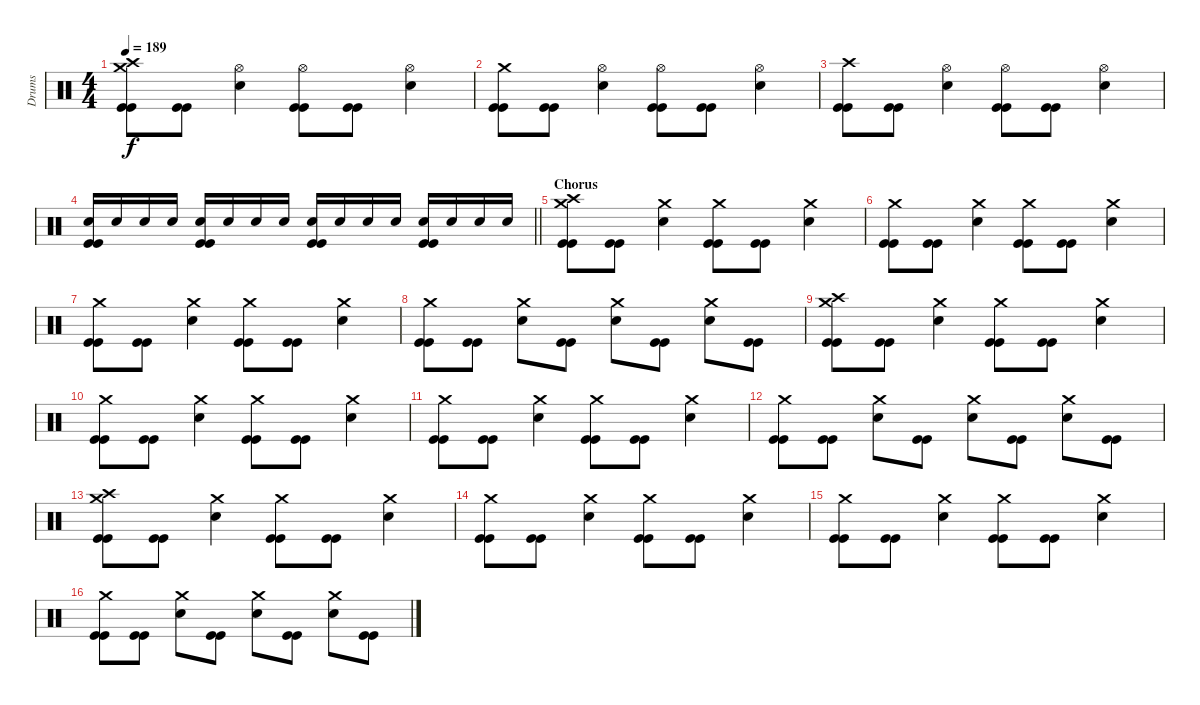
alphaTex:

\track ("Drums" "Drums") {instrument percussion}
\staff {score}
\articulation defaults
\ts (4 4)
\tempo 189
\clef neutral
\ks c
("Crash high (hit)" "Crash medium (hit)" "Kick (hit)" "Kick (hit)").8{dy f} ("Kick (hit)" "Kick (hit)").8 ("Hi-Hat (open)" "Electric Snare (hit)").4 ("Hi-Hat (open)" "Kick (hit)" "Kick (hit)").8 ("Kick (hit)" "Kick (hit)").8 ("Hi-Hat (open)" "Electric Snare (hit)").4 |
("Crash medium (hit)" "Kick (hit)" "Kick (hit)").8 ("Kick (hit)" "Kick (hit)").8 ("Hi-Hat (open)" "Electric Snare (hit)").4 ("Hi-Hat (open)" "Kick (hit)" "Kick (hit)").8 ("Kick (hit)" "Kick (hit)").8 ("Hi-Hat (open)" "Electric Snare (hit)").4 |
("Crash high (hit)" "Kick (hit)" "Kick (hit)").8 ("Kick (hit)" "Kick (hit)").8 ("Hi-Hat (open)" "Electric Snare (hit)").4 ("Hi-Hat (open)" "Kick (hit)" "Kick (hit)").8 ("Kick (hit)" "Kick (hit)").8 ("Hi-Hat (open)" "Electric Snare (hit)").4 |
\barLineRight lightlight
("Electric Snare (hit)" "Kick (hit)" "Kick (hit)").16 "Electric Snare (hit)".16 "Electric Snare (hit)".16 "Electric Snare (hit)".16 ("Electric Snare (hit)" "Kick (hit)" "Kick (hit)").16 "Electric Snare (hit)".16 "Electric Snare (hit)".16 "Electric Snare (hit)".16 ("Electric Snare (hit)" "Kick (hit)" "Kick (hit)").16 "Electric Snare (hit)".16 "Electric Snare (hit)".16 "Electric Snare (hit)".16 ("Electric Snare (hit)" "Kick (hit)" "Kick (hit)").16 "Electric Snare (hit)".16 "Electric Snare (hit)".16 "Electric Snare (hit)".16 |
\section ("" "Chorus")
("Crash high (hit)" "Crash medium (hit)" "Kick (hit)" "Kick (hit)").8 ("Kick (hit)" "Kick (hit)").8 ("Crash medium (hit)" "Electric Snare (hit)").4 ("Crash medium (hit)" "Kick (hit)" "Kick (hit)").8 ("Kick (hit)" "Kick (hit)").8 ("Crash medium (hit)" "Electric Snare (hit)").4 |
("Crash medium (hit)" "Kick (hit)" "Kick (hit)").8 ("Kick (hit)" "Kick (hit)").8 ("Crash medium (hit)" "Electric Snare (hit)").4 ("Crash medium (hit)" "Kick (hit)" "Kick (hit)").8 ("Kick (hit)" "Kick (hit)").8 ("Crash medium (hit)" "Electric Snare (hit)").4 |
("Crash medium (hit)" "Kick (hit)" "Kick (hit)").8 ("Kick (hit)" "Kick (hit)").8 ("Crash medium (hit)" "Electric Snare (hit)").4 ("Crash medium (hit)" "Kick (hit)" "Kick (hit)").8 ("Kick (hit)" "Kick (hit)").8 ("Crash medium (hit)" "Electric Snare (hit)").4 |
("Crash medium (hit)" "Kick (hit)" "Kick (hit)").8 ("Kick (hit)" "Kick (hit)").8 ("Crash medium (hit)" "Electric Snare (hit)").8 ("Kick (hit)" "Kick (hit)").8 ("Crash medium (hit)" "Electric Snare (hit)").8 ("Kick (hit)" "Kick (hit)").8 ("Crash medium (hit)" "Electric Snare (hit)").8 ("Kick (hit)" "Kick (hit)").8 |
("Crash high (hit)" "Crash medium (hit)" "Kick (hit)" "Kick (hit)").8 ("Kick (hit)" "Kick (hit)").8 ("Crash medium (hit)" "Electric Snare (hit)").4 ("Crash medium (hit)" "Kick (hit)" "Kick (hit)").8 ("Kick (hit)" "Kick (hit)").8 ("Crash medium (hit)" "Electric Snare (hit)").4 |
("Crash medium (hit)" "Kick (hit)" "Kick (hit)").8 ("Kick (hit)" "Kick (hit)").8 ("Crash medium (hit)" "Electric Snare (hit)").4 ("Crash medium (hit)" "Kick (hit)" "Kick (hit)").8 ("Kick (hit)" "Kick (hit)").8 ("Crash medium (hit)" "Electric Snare (hit)").4 |
("Crash medium (hit)" "Kick (hit)" "Kick (hit)").8 ("Kick (hit)" "Kick (hit)").8 ("Crash medium (hit)" "Electric Snare (hit)").4 ("Crash medium (hit)" "Kick (hit)" "Kick (hit)").8 ("Kick (hit)" "Kick (hit)").8 ("Crash medium (hit)" "Electric Snare (hit)").4 |
("Crash medium (hit)" "Kick (hit)" "Kick (hit)").8 ("Kick (hit)" "Kick (hit)").8 ("Crash medium (hit)" "Electric Snare (hit)").8 ("Kick (hit)" "Kick (hit)").8 ("Crash medium (hit)" "Electric Snare (hit)").8 ("Kick (hit)" "Kick (hit)").8 ("Crash medium (hit)" "Electric Snare (hit)").8 ("Kick (hit)" "Kick (hit)").8 |
("Crash high (hit)" "Crash medium (hit)" "Kick (hit)" "Kick (hit)").8 ("Kick (hit)" "Kick (hit)").8 ("Crash medium (hit)" "Electric Snare (hit)").4 ("Crash medium (hit)" "Kick (hit)" "Kick (hit)").8 ("Kick (hit)" "Kick (hit)").8 ("Crash medium (hit)" "Electric Snare (hit)").4 |
("Crash medium (hit)" "Kick (hit)" "Kick (hit)").8 ("Kick (hit)" "Kick (hit)").8 ("Crash medium (hit)" "Electric Snare (hit)").4 ("Crash medium (hit)" "Kick (hit)" "Kick (hit)").8 ("Kick (hit)" "Kick (hit)").8 ("Crash medium (hit)" "Electric Snare (hit)").4 |
("Crash medium (hit)" "Kick (hit)" "Kick (hit)").8 ("Kick (hit)" "Kick (hit)").8 ("Crash medium (hit)" "Electric Snare (hit)").4 ("Crash medium (hit)" "Kick (hit)" "Kick (hit)").8 ("Kick (hit)" "Kick (hit)").8 ("Crash medium (hit)" "Electric Snare (hit)").4 |
("Crash medium (hit)" "Kick (hit)" "Kick (hit)").8 ("Kick (hit)" "Kick (hit)").8 ("Crash medium (hit)" "Electric Snare (hit)").8 ("Kick (hit)" "Kick (hit)").8 ("Crash medium (hit)" "Electric Snare (hit)").8 ("Kick (hit)" "Kick (hit)").8 ("Crash medium (hit)" "Electric Snare (hit)").8 ("Kick (hit)" "Kick (hit)").8
